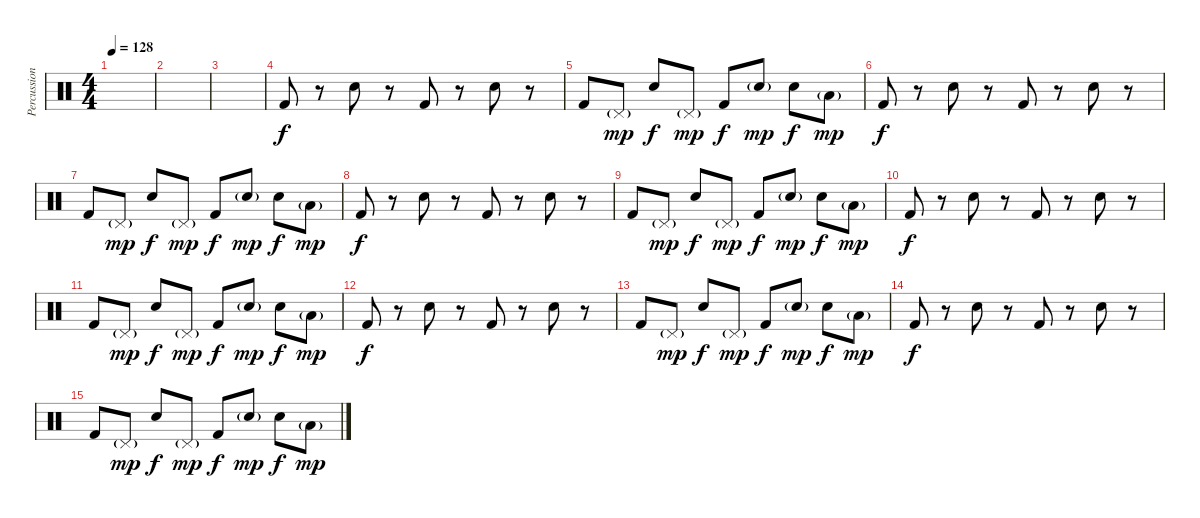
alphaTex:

\track ("Percussions" "Percussion") {instrument percussion}
\staff {score}
\articulation defaults
\ts (4 4)
\tempo 128
\clef neutral
\ks c
|
|
|
"Kick (hit) 2".8 r.8 "Electric Snare (hit)".8 r.8 "Kick (hit) 2".8 r.8 "Electric Snare (hit)".8 r.8 |
"Kick (hit) 2".8 "Pedal Hi-Hat (hit)"{g}.8{dy mp} "Electric Snare (hit)".8{dy f} "Pedal Hi-Hat (hit)"{g}.8{dy mp} "Kick (hit) 2".8{dy f} "Electric Snare (hit)"{g}.8{dy mp} "Electric Snare (hit)".8{dy f} "Low Tom (hit)"{g}.8{dy mp} |
"Kick (hit) 2".8{dy f} r.8 "Electric Snare (hit)".8 r.8 "Kick (hit) 2".8 r.8 "Electric Snare (hit)".8 r.8 |
"Kick (hit) 2".8 "Pedal Hi-Hat (hit)"{g}.8{dy mp} "Electric Snare (hit)".8{dy f} "Pedal Hi-Hat (hit)"{g}.8{dy mp} "Kick (hit) 2".8{dy f} "Electric Snare (hit)"{g}.8{dy mp} "Electric Snare (hit)".8{dy f} "Low Tom (hit)"{g}.8{dy mp} |
"Kick (hit) 2".8{dy f} r.8 "Electric Snare (hit)".8 r.8 "Kick (hit) 2".8 r.8 "Electric Snare (hit)".8 r.8 |
"Kick (hit) 2".8 "Pedal Hi-Hat (hit)"{g}.8{dy mp} "Electric Snare (hit)".8{dy f} "Pedal Hi-Hat (hit)"{g}.8{dy mp} "Kick (hit) 2".8{dy f} "Electric Snare (hit)"{g}.8{dy mp} "Electric Snare (hit)".8{dy f} "Low Tom (hit)"{g}.8{dy mp} |
"Kick (hit) 2".8{dy f} r.8 "Electric Snare (hit)".8 r.8 "Kick (hit) 2".8 r.8 "Electric Snare (hit)".8 r.8 |
"Kick (hit) 2".8 "Pedal Hi-Hat (hit)"{g}.8{dy mp} "Electric Snare (hit)".8{dy f} "Pedal Hi-Hat (hit)"{g}.8{dy mp} "Kick (hit) 2".8{dy f} "Electric Snare (hit)"{g}.8{dy mp} "Electric Snare (hit)".8{dy f} "Low Tom (hit)"{g}.8{dy mp} |
"Kick (hit) 2".8{dy f} r.8 "Electric Snare (hit)".8 r.8 "Kick (hit) 2".8 r.8 "Electric Snare (hit)".8 r.8 |
"Kick (hit) 2".8 "Pedal Hi-Hat (hit)"{g}.8{dy mp} "Electric Snare (hit)".8{dy f} "Pedal Hi-Hat (hit)"{g}.8{dy mp} "Kick (hit) 2".8{dy f} "Electric Snare (hit)"{g}.8{dy mp} "Electric Snare (hit)".8{dy f} "Low Tom (hit)"{g}.8{dy mp} |
"Kick (hit) 2".8{dy f} r.8 "Electric Snare (hit)".8 r.8 "Kick (hit) 2".8 r.8 "Electric Snare (hit)".8 r.8 |
"Kick (hit) 2".8 "Pedal Hi-Hat (hit)"{g}.8{dy mp} "Electric Snare (hit)".8{dy f} "Pedal Hi-Hat (hit)"{g}.8{dy mp} "Kick (hit) 2".8{dy f} "Electric Snare (hit)"{g}.8{dy mp} "Electric Snare (hit)".8{dy f} "Low Tom (hit)"{g}.8{dy mp}
